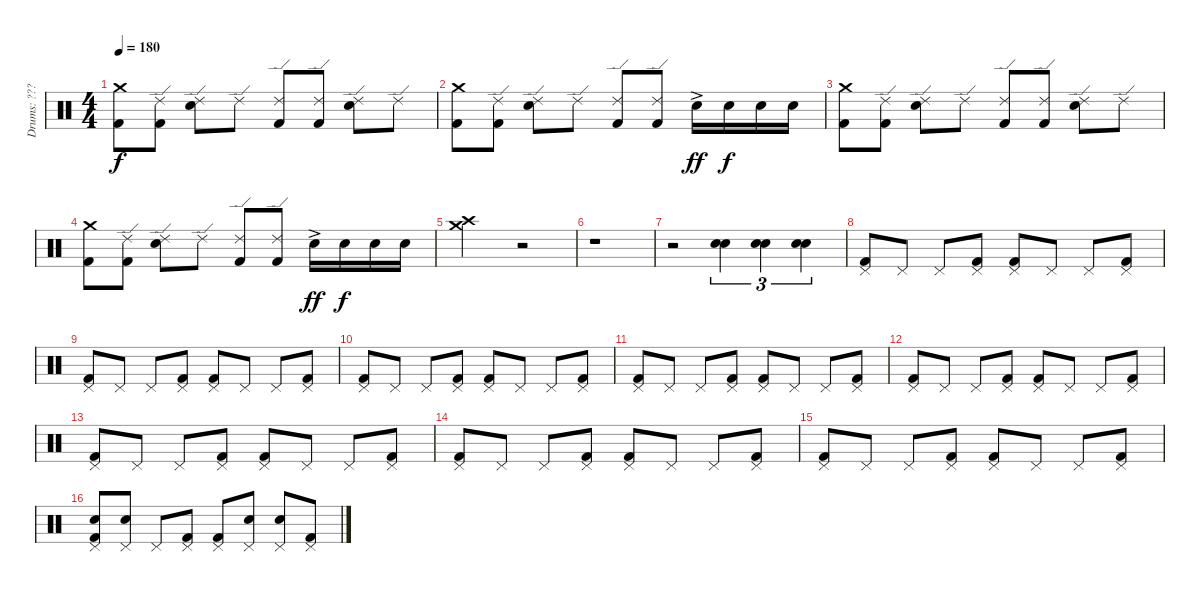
\track ("Drums: ???" "Drums: ???") {instrument percussion}
\staff {score}
\articulation defaults
\ts (4 4)
\tempo 180
\clef neutral
\ks c
("Crash medium (hit)" "Kick (hit) 2").8{dy f} ("Ride (edge) 2" "Kick (hit) 2").8 ("Ride (edge) 2" "Snare (hit) 2").8 "Ride (edge) 2".8 ("Ride (edge) 2" "Kick (hit) 2").8 ("Ride (edge) 2" "Kick (hit) 2").8 ("Ride (edge) 2" "Snare (hit) 2").8 "Ride (edge) 2".8 |
("Crash medium (hit)" "Kick (hit) 2").8 ("Ride (edge) 2" "Kick (hit) 2").8 ("Ride (edge) 2" "Snare (hit) 2").8 "Ride (edge) 2".8 ("Ride (edge) 2" "Kick (hit) 2").8 ("Ride (edge) 2" "Kick (hit) 2").8 "Snare (hit) 2"{ac}.16{dy ff} "Snare (hit) 2".16{dy f} "Snare (hit) 2".16 "Snare (hit) 2".16 |
("Crash medium (hit)" "Kick (hit) 2").8 ("Ride (edge) 2" "Kick (hit) 2").8 ("Ride (edge) 2" "Snare (hit) 2").8 "Ride (edge) 2".8 ("Ride (edge) 2" "Kick (hit) 2").8 ("Ride (edge) 2" "Kick (hit) 2").8 ("Ride (edge) 2" "Snare (hit) 2").8 "Ride (edge) 2".8 |
("Crash medium (hit)" "Kick (hit) 2").8 ("Ride (edge) 2" "Kick (hit) 2").8 ("Ride (edge) 2" "Snare (hit) 2").8 "Ride (edge) 2".8 ("Ride (edge) 2" "Kick (hit) 2").8 ("Ride (edge) 2" "Kick (hit) 2").8 "Snare (hit) 2"{ac}.16{dy ff} "Snare (hit) 2".16{dy f} "Snare (hit) 2".16 "Snare (hit) 2".16 |
("Crash medium (hit)" "Crash high (hit)").2 r.2 |
r.1 |
r.2 ("Snare (hit) 2" "Electric Snare (hit)").4{tu (3 2)} ("Snare (hit) 2" "Electric Snare (hit)").4{tu (3 2)} ("Snare (hit) 2" "Electric Snare (hit)").4{tu (3 2)} |
("Pedal Hi-Hat (hit)" "Kick (hit) 2").8 "Pedal Hi-Hat (hit)".8 "Pedal Hi-Hat (hit)".8 ("Pedal Hi-Hat (hit)" "Kick (hit) 2").8 ("Pedal Hi-Hat (hit)" "Kick (hit) 2").8 "Pedal Hi-Hat (hit)".8 "Pedal Hi-Hat (hit)".8 ("Pedal Hi-Hat (hit)" "Kick (hit) 2").8 |
("Pedal Hi-Hat (hit)" "Kick (hit) 2").8 "Pedal Hi-Hat (hit)".8 "Pedal Hi-Hat (hit)".8 ("Pedal Hi-Hat (hit)" "Kick (hit) 2").8 ("Pedal Hi-Hat (hit)" "Kick (hit) 2").8 "Pedal Hi-Hat (hit)".8 "Pedal Hi-Hat (hit)".8 ("Pedal Hi-Hat (hit)" "Kick (hit) 2").8 |
("Pedal Hi-Hat (hit)" "Kick (hit) 2").8 "Pedal Hi-Hat (hit)".8 "Pedal Hi-Hat (hit)".8 ("Pedal Hi-Hat (hit)" "Kick (hit) 2").8 ("Pedal Hi-Hat (hit)" "Kick (hit) 2").8 "Pedal Hi-Hat (hit)".8 "Pedal Hi-Hat (hit)".8 ("Pedal Hi-Hat (hit)" "Kick (hit) 2").8 |
("Pedal Hi-Hat (hit)" "Kick (hit) 2").8 "Pedal Hi-Hat (hit)".8 "Pedal Hi-Hat (hit)".8 ("Pedal Hi-Hat (hit)" "Kick (hit) 2").8 ("Pedal Hi-Hat (hit)" "Kick (hit) 2").8 "Pedal Hi-Hat (hit)".8 "Pedal Hi-Hat (hit)".8 ("Pedal Hi-Hat (hit)" "Kick (hit) 2").8 |
("Pedal Hi-Hat (hit)" "Kick (hit) 2").8 "Pedal Hi-Hat (hit)".8 "Pedal Hi-Hat (hit)".8 ("Pedal Hi-Hat (hit)" "Kick (hit) 2").8 ("Pedal Hi-Hat (hit)" "Kick (hit) 2").8 "Pedal Hi-Hat (hit)".8 "Pedal Hi-Hat (hit)".8 ("Pedal Hi-Hat (hit)" "Kick (hit) 2").8 |
("Pedal Hi-Hat (hit)" "Kick (hit) 2").8 "Pedal Hi-Hat (hit)".8 "Pedal Hi-Hat (hit)".8 ("Pedal Hi-Hat (hit)" "Kick (hit) 2").8 ("Pedal Hi-Hat (hit)" "Kick (hit) 2").8 "Pedal Hi-Hat (hit)".8 "Pedal Hi-Hat (hit)".8 ("Pedal Hi-Hat (hit)" "Kick (hit) 2").8 |
("Pedal Hi-Hat (hit)" "Kick (hit) 2").8 "Pedal Hi-Hat (hit)".8 "Pedal Hi-Hat (hit)".8 ("Pedal Hi-Hat (hit)" "Kick (hit) 2").8 ("Pedal Hi-Hat (hit)" "Kick (hit) 2").8 "Pedal Hi-Hat (hit)".8 "Pedal Hi-Hat (hit)".8 ("Pedal Hi-Hat (hit)" "Kick (hit) 2").8 |
("Pedal Hi-Hat (hit)" "Kick (hit) 2").8 "Pedal Hi-Hat (hit)".8 "Pedal Hi-Hat (hit)".8 ("Pedal Hi-Hat (hit)" "Kick (hit) 2").8 ("Pedal Hi-Hat (hit)" "Kick (hit) 2").8 "Pedal Hi-Hat (hit)".8 "Pedal Hi-Hat (hit)".8 ("Pedal Hi-Hat (hit)" "Kick (hit) 2").8 |
("Pedal Hi-Hat (hit)" "Electric Snare (hit)" "Kick (hit) 2").8 ("Pedal Hi-Hat (hit)" "Electric Snare (hit)").8 "Pedal Hi-Hat (hit)".8 ("Pedal Hi-Hat (hit)" "Kick (hit) 2").8 ("Pedal Hi-Hat (hit)" "Kick (hit) 2").8 ("Pedal Hi-Hat (hit)" "Electric Snare (hit)").8 ("Pedal Hi-Hat (hit)" "Electric Snare (hit)").8 ("Pedal Hi-Hat (hit)" "Kick (hit) 2").8
